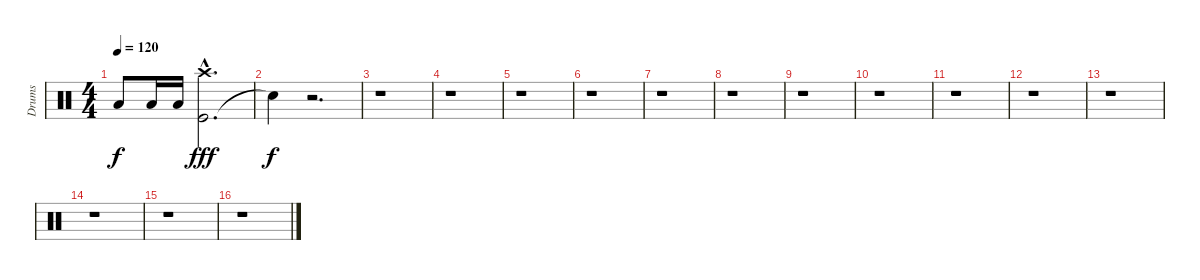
\track ("Drums" "Drums") {instrument percussion}
\staff {score}
\articulation defaults
\ts (4 4)
\tempo 120
\clef neutral
\ks c "Low Floor Tom (hit)".8{dy f} "Low Floor Tom (hit)".16 "Low Floor Tom (hit)".16
("Kick (hit)" "Crash high (hit)"{hac}).2{d dy fff} |
"Snare (hit)"{t}.4{dy f} r.2{d} |
r.1 |
r.1 |
r.1 |
r.1 |
r.1 |
r.1 |
r.1 |
r.1 |
r.1 |
r.1 |
r.1 |
r.1 |
r.1 |
r.1
